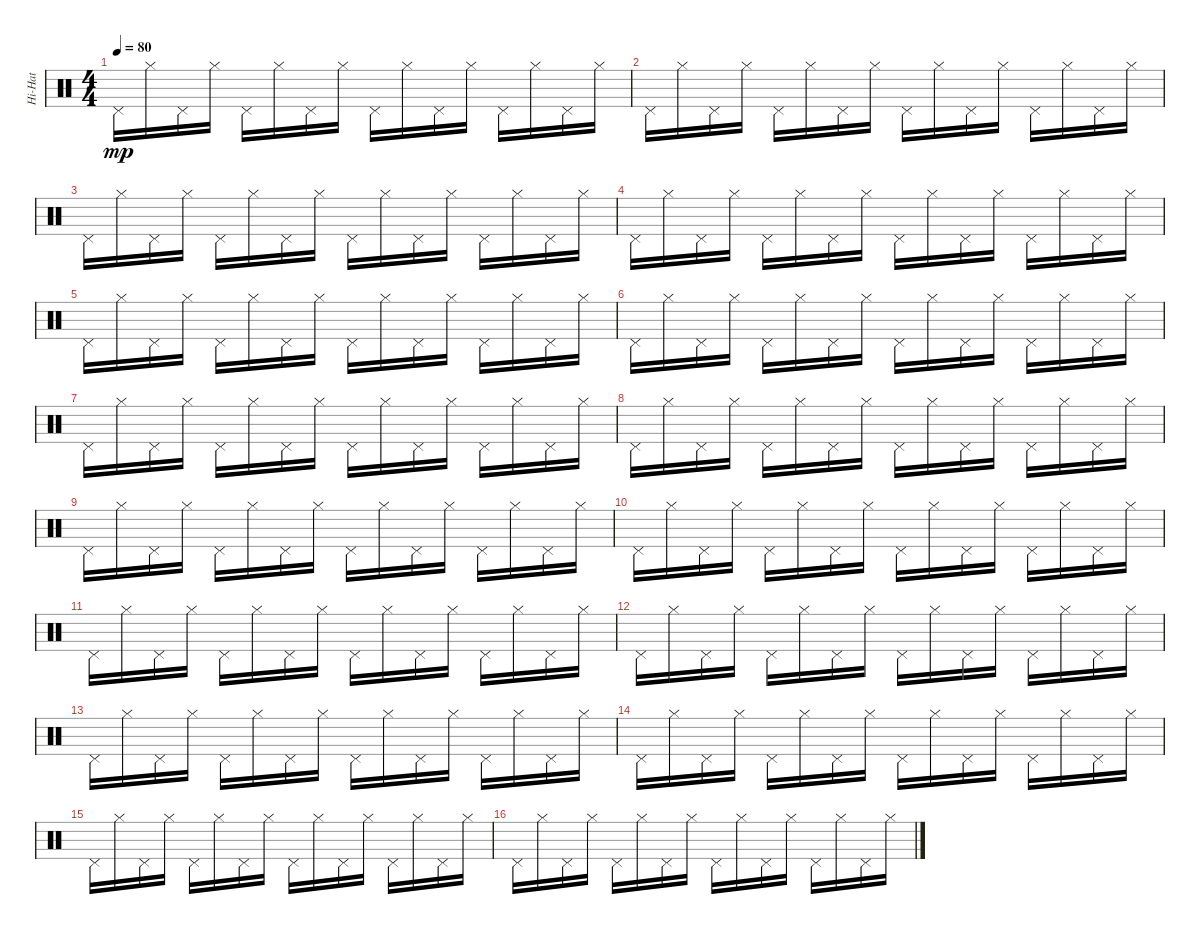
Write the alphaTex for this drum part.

\track ("Hi-Hat" "Hi-Hat") {instrument percussion}
\staff {score}
\articulation defaults
\ts (4 4)
\tempo 80
\clef neutral
\ks c "Pedal Hi-Hat (hit)".16{dy mp} "Hi-Hat (closed)".16 "Pedal Hi-Hat (hit)".16 "Hi-Hat (closed)".16 "Pedal Hi-Hat (hit)".16 "Hi-Hat (closed)".16 "Pedal Hi-Hat (hit)".16 "Hi-Hat (closed)".16 "Pedal Hi-Hat (hit)".16 "Hi-Hat (closed)".16 "Pedal Hi-Hat (hit)".16 "Hi-Hat (closed)".16 "Pedal Hi-Hat (hit)".16 "Hi-Hat (closed)".16 "Pedal Hi-Hat (hit)".16 "Hi-Hat (closed)".16
|
"Pedal Hi-Hat (hit)".16 "Hi-Hat (closed)".16 "Pedal Hi-Hat (hit)".16 "Hi-Hat (closed)".16 "Pedal Hi-Hat (hit)".16 "Hi-Hat (closed)".16 "Pedal Hi-Hat (hit)".16 "Hi-Hat (closed)".16 "Pedal Hi-Hat (hit)".16 "Hi-Hat (closed)".16 "Pedal Hi-Hat (hit)".16 "Hi-Hat (closed)".16 "Pedal Hi-Hat (hit)".16 "Hi-Hat (closed)".16 "Pedal Hi-Hat (hit)".16 "Hi-Hat (closed)".16 |
"Pedal Hi-Hat (hit)".16 "Hi-Hat (closed)".16 "Pedal Hi-Hat (hit)".16 "Hi-Hat (closed)".16 "Pedal Hi-Hat (hit)".16 "Hi-Hat (closed)".16 "Pedal Hi-Hat (hit)".16 "Hi-Hat (closed)".16 "Pedal Hi-Hat (hit)".16 "Hi-Hat (closed)".16 "Pedal Hi-Hat (hit)".16 "Hi-Hat (closed)".16 "Pedal Hi-Hat (hit)".16 "Hi-Hat (closed)".16 "Pedal Hi-Hat (hit)".16 "Hi-Hat (closed)".16 |
"Pedal Hi-Hat (hit)".16 "Hi-Hat (closed)".16 "Pedal Hi-Hat (hit)".16 "Hi-Hat (closed)".16 "Pedal Hi-Hat (hit)".16 "Hi-Hat (closed)".16 "Pedal Hi-Hat (hit)".16 "Hi-Hat (closed)".16 "Pedal Hi-Hat (hit)".16 "Hi-Hat (closed)".16 "Pedal Hi-Hat (hit)".16 "Hi-Hat (closed)".16 "Pedal Hi-Hat (hit)".16 "Hi-Hat (closed)".16 "Pedal Hi-Hat (hit)".16 "Hi-Hat (closed)".16 |
"Pedal Hi-Hat (hit)".16 "Hi-Hat (closed)".16 "Pedal Hi-Hat (hit)".16 "Hi-Hat (closed)".16 "Pedal Hi-Hat (hit)".16 "Hi-Hat (closed)".16 "Pedal Hi-Hat (hit)".16 "Hi-Hat (closed)".16 "Pedal Hi-Hat (hit)".16 "Hi-Hat (closed)".16 "Pedal Hi-Hat (hit)".16 "Hi-Hat (closed)".16 "Pedal Hi-Hat (hit)".16 "Hi-Hat (closed)".16 "Pedal Hi-Hat (hit)".16 "Hi-Hat (closed)".16 |
"Pedal Hi-Hat (hit)".16 "Hi-Hat (closed)".16 "Pedal Hi-Hat (hit)".16 "Hi-Hat (closed)".16 "Pedal Hi-Hat (hit)".16 "Hi-Hat (closed)".16 "Pedal Hi-Hat (hit)".16 "Hi-Hat (closed)".16 "Pedal Hi-Hat (hit)".16 "Hi-Hat (closed)".16 "Pedal Hi-Hat (hit)".16 "Hi-Hat (closed)".16 "Pedal Hi-Hat (hit)".16 "Hi-Hat (closed)".16 "Pedal Hi-Hat (hit)".16 "Hi-Hat (closed)".16 |
"Pedal Hi-Hat (hit)".16 "Hi-Hat (closed)".16 "Pedal Hi-Hat (hit)".16 "Hi-Hat (closed)".16 "Pedal Hi-Hat (hit)".16 "Hi-Hat (closed)".16 "Pedal Hi-Hat (hit)".16 "Hi-Hat (closed)".16 "Pedal Hi-Hat (hit)".16 "Hi-Hat (closed)".16 "Pedal Hi-Hat (hit)".16 "Hi-Hat (closed)".16 "Pedal Hi-Hat (hit)".16 "Hi-Hat (closed)".16 "Pedal Hi-Hat (hit)".16 "Hi-Hat (closed)".16 |
"Pedal Hi-Hat (hit)".16 "Hi-Hat (closed)".16 "Pedal Hi-Hat (hit)".16 "Hi-Hat (closed)".16 "Pedal Hi-Hat (hit)".16 "Hi-Hat (closed)".16 "Pedal Hi-Hat (hit)".16 "Hi-Hat (closed)".16 "Pedal Hi-Hat (hit)".16 "Hi-Hat (closed)".16 "Pedal Hi-Hat (hit)".16 "Hi-Hat (closed)".16 "Pedal Hi-Hat (hit)".16 "Hi-Hat (closed)".16 "Pedal Hi-Hat (hit)".16 "Hi-Hat (closed)".16 |
"Pedal Hi-Hat (hit)".16 "Hi-Hat (closed)".16 "Pedal Hi-Hat (hit)".16 "Hi-Hat (closed)".16 "Pedal Hi-Hat (hit)".16 "Hi-Hat (closed)".16 "Pedal Hi-Hat (hit)".16 "Hi-Hat (closed)".16 "Pedal Hi-Hat (hit)".16 "Hi-Hat (closed)".16 "Pedal Hi-Hat (hit)".16 "Hi-Hat (closed)".16 "Pedal Hi-Hat (hit)".16 "Hi-Hat (closed)".16 "Pedal Hi-Hat (hit)".16 "Hi-Hat (closed)".16 |
"Pedal Hi-Hat (hit)".16 "Hi-Hat (closed)".16 "Pedal Hi-Hat (hit)".16 "Hi-Hat (closed)".16 "Pedal Hi-Hat (hit)".16 "Hi-Hat (closed)".16 "Pedal Hi-Hat (hit)".16 "Hi-Hat (closed)".16 "Pedal Hi-Hat (hit)".16 "Hi-Hat (closed)".16 "Pedal Hi-Hat (hit)".16 "Hi-Hat (closed)".16 "Pedal Hi-Hat (hit)".16 "Hi-Hat (closed)".16 "Pedal Hi-Hat (hit)".16 "Hi-Hat (closed)".16 |
"Pedal Hi-Hat (hit)".16 "Hi-Hat (closed)".16 "Pedal Hi-Hat (hit)".16 "Hi-Hat (closed)".16 "Pedal Hi-Hat (hit)".16 "Hi-Hat (closed)".16 "Pedal Hi-Hat (hit)".16 "Hi-Hat (closed)".16 "Pedal Hi-Hat (hit)".16 "Hi-Hat (closed)".16 "Pedal Hi-Hat (hit)".16 "Hi-Hat (closed)".16 "Pedal Hi-Hat (hit)".16 "Hi-Hat (closed)".16 "Pedal Hi-Hat (hit)".16 "Hi-Hat (closed)".16 |
"Pedal Hi-Hat (hit)".16 "Hi-Hat (closed)".16 "Pedal Hi-Hat (hit)".16 "Hi-Hat (closed)".16 "Pedal Hi-Hat (hit)".16 "Hi-Hat (closed)".16 "Pedal Hi-Hat (hit)".16 "Hi-Hat (closed)".16 "Pedal Hi-Hat (hit)".16 "Hi-Hat (closed)".16 "Pedal Hi-Hat (hit)".16 "Hi-Hat (closed)".16 "Pedal Hi-Hat (hit)".16 "Hi-Hat (closed)".16 "Pedal Hi-Hat (hit)".16 "Hi-Hat (closed)".16 |
"Pedal Hi-Hat (hit)".16 "Hi-Hat (closed)".16 "Pedal Hi-Hat (hit)".16 "Hi-Hat (closed)".16 "Pedal Hi-Hat (hit)".16 "Hi-Hat (closed)".16 "Pedal Hi-Hat (hit)".16 "Hi-Hat (closed)".16 "Pedal Hi-Hat (hit)".16 "Hi-Hat (closed)".16 "Pedal Hi-Hat (hit)".16 "Hi-Hat (closed)".16 "Pedal Hi-Hat (hit)".16 "Hi-Hat (closed)".16 "Pedal Hi-Hat (hit)".16 "Hi-Hat (closed)".16 |
"Pedal Hi-Hat (hit)".16 "Hi-Hat (closed)".16 "Pedal Hi-Hat (hit)".16 "Hi-Hat (closed)".16 "Pedal Hi-Hat (hit)".16 "Hi-Hat (closed)".16 "Pedal Hi-Hat (hit)".16 "Hi-Hat (closed)".16 "Pedal Hi-Hat (hit)".16 "Hi-Hat (closed)".16 "Pedal Hi-Hat (hit)".16 "Hi-Hat (closed)".16 "Pedal Hi-Hat (hit)".16 "Hi-Hat (closed)".16 "Pedal Hi-Hat (hit)".16 "Hi-Hat (closed)".16 |
"Pedal Hi-Hat (hit)".16 "Hi-Hat (closed)".16 "Pedal Hi-Hat (hit)".16 "Hi-Hat (closed)".16 "Pedal Hi-Hat (hit)".16 "Hi-Hat (closed)".16 "Pedal Hi-Hat (hit)".16 "Hi-Hat (closed)".16 "Pedal Hi-Hat (hit)".16 "Hi-Hat (closed)".16 "Pedal Hi-Hat (hit)".16 "Hi-Hat (closed)".16 "Pedal Hi-Hat (hit)".16 "Hi-Hat (closed)".16 "Pedal Hi-Hat (hit)".16 "Hi-Hat (closed)".16 |
"Pedal Hi-Hat (hit)".16 "Hi-Hat (closed)".16 "Pedal Hi-Hat (hit)".16 "Hi-Hat (closed)".16 "Pedal Hi-Hat (hit)".16 "Hi-Hat (closed)".16 "Pedal Hi-Hat (hit)".16 "Hi-Hat (closed)".16 "Pedal Hi-Hat (hit)".16 "Hi-Hat (closed)".16 "Pedal Hi-Hat (hit)".16 "Hi-Hat (closed)".16 "Pedal Hi-Hat (hit)".16 "Hi-Hat (closed)".16 "Pedal Hi-Hat (hit)".16 "Hi-Hat (closed)".16
